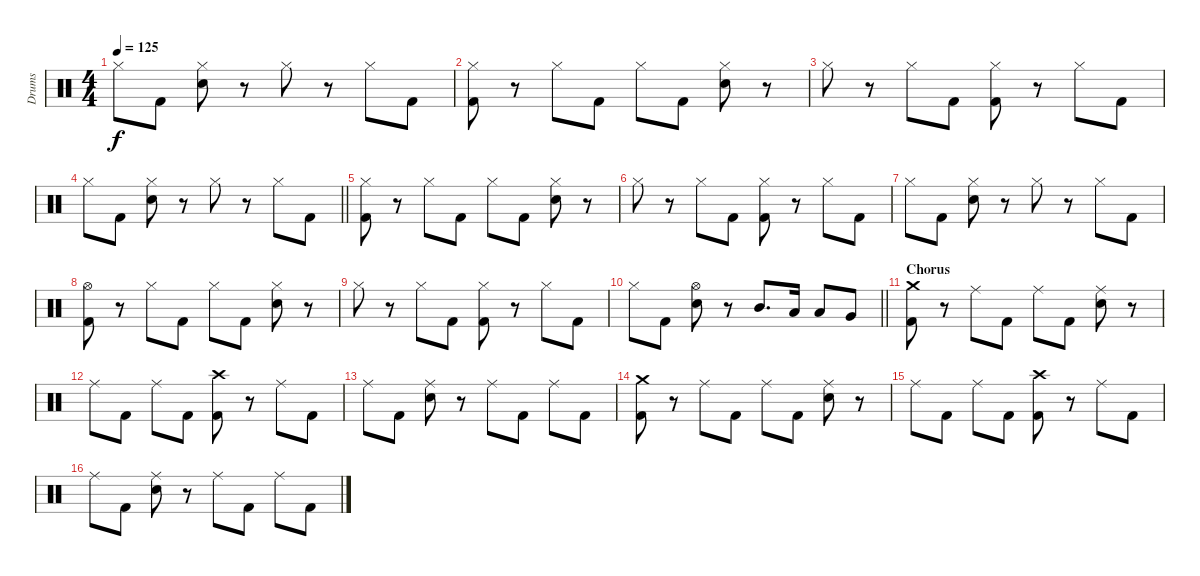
\track ("Drums" "Drums") {instrument percussion}
\staff {score}
\articulation defaults
\ts (4 4)
\tempo 125
\clef neutral
\ks c "Hi-Hat (closed)".8{dy f} "Kick (hit) 2".8
("Hi-Hat (closed)" "Electric Snare (hit)").8 r.8 "Hi-Hat (closed)".8 r.8 "Hi-Hat (closed)".8 "Kick (hit) 2".8 |
("Hi-Hat (closed)" "Kick (hit) 2").8 r.8 "Hi-Hat (closed)".8 "Kick (hit) 2".8 "Hi-Hat (closed)".8 "Kick (hit) 2".8 ("Hi-Hat (closed)" "Electric Snare (hit)").8 r.8 |
"Hi-Hat (closed)".8 r.8 "Hi-Hat (closed)".8 "Kick (hit) 2".8 ("Hi-Hat (closed)" "Kick (hit) 2").8 r.8 "Hi-Hat (closed)".8 "Kick (hit) 2".8 |
\barLineRight lightlight "Hi-Hat (closed)".8 "Kick (hit) 2".8
("Hi-Hat (closed)" "Electric Snare (hit)").8 r.8 "Hi-Hat (closed)".8 r.8 "Hi-Hat (closed)".8 "Kick (hit) 2".8 |
("Hi-Hat (closed)" "Kick (hit) 2").8 r.8 "Hi-Hat (closed)".8 "Kick (hit) 2".8 "Hi-Hat (closed)".8 "Kick (hit) 2".8 ("Hi-Hat (closed)" "Electric Snare (hit)").8 r.8 |
"Hi-Hat (closed)".8 r.8 "Hi-Hat (closed)".8 "Kick (hit) 2".8 ("Hi-Hat (closed)" "Kick (hit) 2").8 r.8 "Hi-Hat (closed)".8 "Kick (hit) 2".8 |
"Hi-Hat (closed)".8 "Kick (hit) 2".8 ("Hi-Hat (closed)" "Electric Snare (hit)").8 r.8 "Hi-Hat (closed)".8 r.8 "Hi-Hat (closed)".8 "Kick (hit) 2".8 |
("Hi-Hat (open)" "Kick (hit) 2").8 r.8 "Hi-Hat (closed)".8 "Kick (hit) 2".8 "Hi-Hat (closed)".8 "Kick (hit) 2".8 ("Hi-Hat (closed)" "Electric Snare (hit)").8 r.8 |
"Hi-Hat (closed)".8 r.8 "Hi-Hat (closed)".8 "Kick (hit) 2".8 ("Hi-Hat (closed)" "Kick (hit) 2").8 r.8 "Hi-Hat (closed)".8 "Kick (hit) 2".8 |
\barLineRight lightlight "Hi-Hat (closed)".8 "Kick (hit) 2".8
("Hi-Hat (open)" "Electric Snare (hit)").8 r.8 "Mid Tom (hit)".8{d} "Low Tom (hit)".16 "Low Tom (hit)".8 "Very Low Tom (hit)".8 |
\section ("" "Chorus")
("Crash medium (hit)" "Kick (hit) 2").8{volume 16} r.8 "Ride (middle)".8 "Kick (hit) 2".8 "Ride (middle)".8 "Kick (hit) 2".8 ("Ride (middle)" "Electric Snare (hit)").8 r.8 |
"Ride (middle)".8 "Kick (hit) 2".8 "Ride (middle)".8 "Kick (hit) 2".8 ("Crash high (hit)" "Kick (hit) 2").8 r.8 "Ride (middle)".8 "Kick (hit) 2".8 |
"Ride (middle)".8 "Kick (hit) 2".8 ("Ride (middle)" "Electric Snare (hit)").8 r.8 "Ride (middle)".8 "Kick (hit) 2".8 "Ride (middle)".8 "Kick (hit) 2".8 |
("Crash medium (hit)" "Kick (hit) 2").8{volume 16} r.8 "Ride (middle)".8 "Kick (hit) 2".8 "Ride (middle)".8 "Kick (hit) 2".8 ("Ride (middle)" "Electric Snare (hit)").8 r.8 |
"Ride (middle)".8 "Kick (hit) 2".8 "Ride (middle)".8 "Kick (hit) 2".8 ("Crash high (hit)" "Kick (hit) 2").8 r.8 "Ride (middle)".8 "Kick (hit) 2".8 |
"Ride (middle)".8 "Kick (hit) 2".8 ("Ride (middle)" "Electric Snare (hit)").8 r.8 "Ride (middle)".8 "Kick (hit) 2".8 "Ride (middle)".8 "Kick (hit) 2".8
